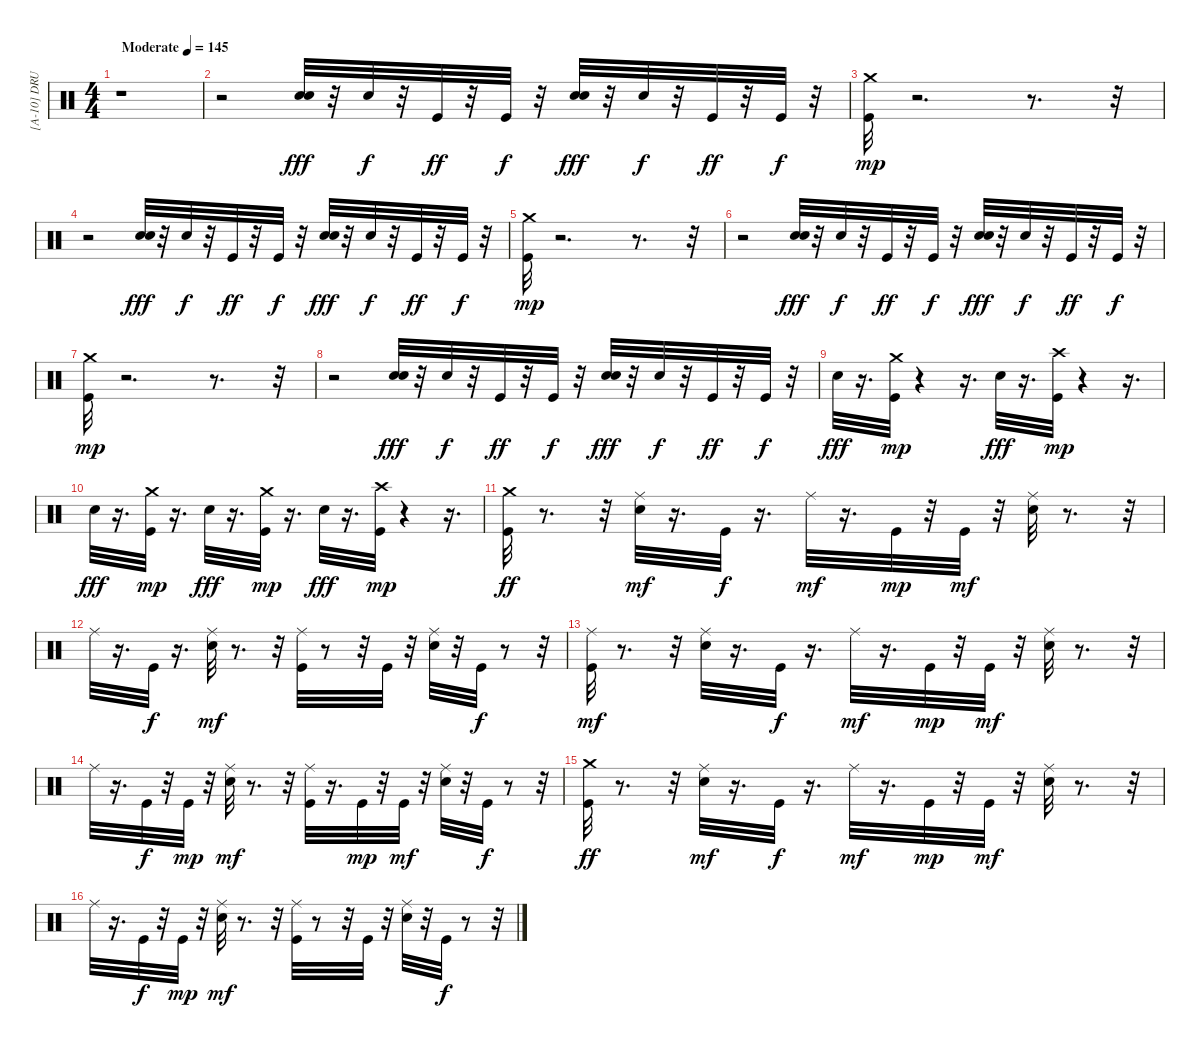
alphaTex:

\track ("[A-10] DRUMS" "[A-10] DRU") {instrument percussion}
\staff {score}
\articulation defaults
\ts (4 4)
\tempo (145 "Moderate")
\clef neutral
\ks c
r.1{dy fff} |
r.2 ("Snare (hit) 2" "Snare (hit) 2").32 r.32 "Snare (hit) 2".32{dy f} r.32 "Kick (hit)".32{dy ff} r.32 "Kick (hit)".32{dy f} r.32 ("Snare (hit) 2" "Snare (hit) 2").32{dy fff} r.32 "Snare (hit) 2".32{dy f} r.32 "Kick (hit)".32{dy ff} r.32 "Kick (hit)".32{dy f} r.32 |
("Kick (hit)" "Crash medium (hit)").32{dy mp} r.2{d} r.8{d} r.32 |
r.2 ("Snare (hit) 2" "Snare (hit) 2").32{dy fff} r.32 "Snare (hit) 2".32{dy f} r.32 "Kick (hit)".32{dy ff} r.32 "Kick (hit)".32{dy f} r.32 ("Snare (hit) 2" "Snare (hit) 2").32{dy fff} r.32 "Snare (hit) 2".32{dy f} r.32 "Kick (hit)".32{dy ff} r.32 "Kick (hit)".32{dy f} r.32 |
("Kick (hit)" "Crash medium (hit)").32{dy mp} r.2{d} r.8{d} r.32 |
r.2 ("Snare (hit) 2" "Snare (hit) 2").32{dy fff} r.32 "Snare (hit) 2".32{dy f} r.32 "Kick (hit)".32{dy ff} r.32 "Kick (hit)".32{dy f} r.32 ("Snare (hit) 2" "Snare (hit) 2").32{dy fff} r.32 "Snare (hit) 2".32{dy f} r.32 "Kick (hit)".32{dy ff} r.32 "Kick (hit)".32{dy f} r.32 |
("Kick (hit)" "Crash medium (hit)").32{dy mp} r.2{d} r.8{d} r.32 |
r.2 ("Snare (hit) 2" "Snare (hit) 2").32{dy fff} r.32 "Snare (hit) 2".32{dy f} r.32 "Kick (hit)".32{dy ff} r.32 "Kick (hit)".32{dy f} r.32 ("Snare (hit) 2" "Snare (hit) 2").32{dy fff} r.32 "Snare (hit) 2".32{dy f} r.32 "Kick (hit)".32{dy ff} r.32 "Kick (hit)".32{dy f} r.32 |
"Snare (hit) 2".32{dy fff} r.16{d} ("Kick (hit)" "Crash medium (hit)").32{dy mp} r.4 r.16{d} "Snare (hit) 2".32{dy fff} r.16{d} ("Kick (hit)" "Crash high (hit)").32{dy mp} r.4 r.16{d} |
"Snare (hit) 2".32{dy fff} r.16{d} ("Kick (hit)" "Crash medium (hit)").32{dy mp} r.16{d} "Snare (hit) 2".32{dy fff} r.16{d} ("Kick (hit)" "Crash medium (hit)").32{dy mp} r.16{d} "Snare (hit) 2".32{dy fff} r.16{d} ("Kick (hit)" "Crash high (hit)").32{dy mp} r.4 r.16{d} |
("Crash medium (hit)" "Kick (hit)").32{dy ff} r.8{d} r.32 ("Snare (hit) 2" "Ride (middle)").32{dy mf} r.16{d} "Kick (hit)".32{dy f} r.16{d} "Ride (middle)".32{dy mf} r.16{d} "Kick (hit)".32{dy mp} r.32 "Kick (hit)".32{dy mf} r.32 ("Snare (hit) 2" "Ride (middle)").32 r.8{d} r.32 |
"Ride (middle)".32 r.16{d} "Kick (hit)".32{dy f} r.16{d} ("Snare (hit) 2" "Ride (middle)").32{dy mf} r.8{d} r.32 ("Kick (hit)" "Ride (middle)").32 r.8 r.32 "Kick (hit)".32 r.32 ("Snare (hit) 2" "Ride (middle)").32 r.32 "Kick (hit)".32{dy f} r.8 r.32 |
("Kick (hit)" "Ride (middle)").32{dy mf} r.8{d} r.32 ("Snare (hit) 2" "Ride (middle)").32 r.16{d} "Kick (hit)".32{dy f} r.16{d} "Ride (middle)".32{dy mf} r.16{d} "Kick (hit)".32{dy mp} r.32 "Kick (hit)".32{dy mf} r.32 ("Snare (hit) 2" "Ride (middle)").32 r.8{d} r.32 |
"Ride (middle)".32 r.16{d} "Kick (hit)".32{dy f} r.32 "Kick (hit)".32{dy mp} r.32 ("Snare (hit) 2" "Ride (middle)").32{dy mf} r.8{d} r.32 ("Kick (hit)" "Ride (middle)").32 r.16{d} "Kick (hit)".32{dy mp} r.32 "Kick (hit)".32{dy mf} r.32 ("Snare (hit) 2" "Ride (middle)").32 r.32 "Kick (hit)".32{dy f} r.8 r.32 |
("Crash medium (hit)" "Kick (hit)").32{dy ff} r.8{d} r.32 ("Snare (hit) 2" "Ride (middle)").32{dy mf} r.16{d} "Kick (hit)".32{dy f} r.16{d} "Ride (middle)".32{dy mf} r.16{d} "Kick (hit)".32{dy mp} r.32 "Kick (hit)".32{dy mf} r.32 ("Snare (hit) 2" "Ride (middle)").32 r.8{d} r.32 |
"Ride (middle)".32 r.16{d} "Kick (hit)".32{dy f} r.32 "Kick (hit)".32{dy mp} r.32 ("Snare (hit) 2" "Ride (middle)").32{dy mf} r.8{d} r.32 ("Kick (hit)" "Ride (middle)").32 r.8 r.32 "Kick (hit)".32 r.32 ("Snare (hit) 2" "Ride (middle)").32 r.32 "Kick (hit)".32{dy f} r.8 r.32
